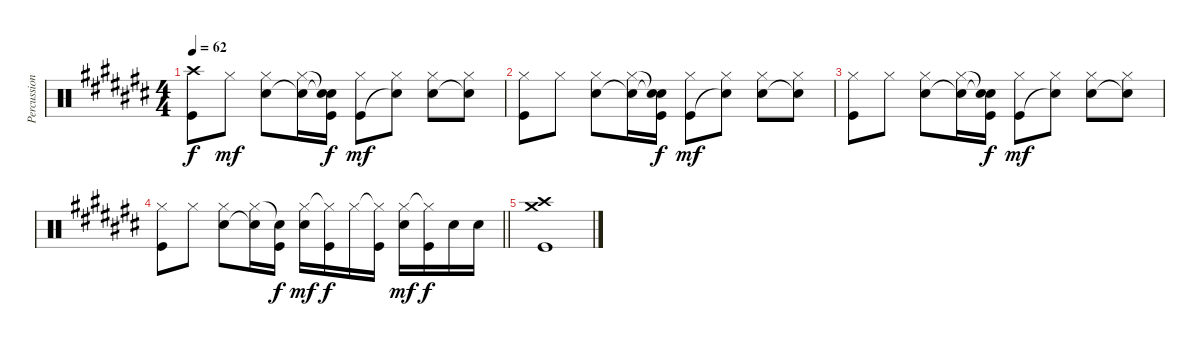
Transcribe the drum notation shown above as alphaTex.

\track ("Percussion" "Percussion") {instrument percussion}
\staff {score}
\articulation defaults
\ts (4 4)
\tempo 62
\clef neutral
\ks c#
("Crash high (hit)" "Kick (hit)").8{dy f volume 5} "Hi-Hat (closed)".8{dy mf} ("Hi-Hat (closed)" "Snare (hit) 2").8 ("Hi-Hat (closed)" "Snare (hit)"{t}).16 ("Snare (hit)"{t} "Snare (hit)"{t} "Kick (hit)").16{dy f} ("Hi-Hat (closed)" "Kick (hit)").8{dy mf volume 4} ("Hi-Hat (closed)" "Snare (hit)"{t}).8 ("Hi-Hat (closed)" "Snare (hit) 2").8 ("Hi-Hat (closed)" "Snare (hit)"{t}).8 |
("Hi-Hat (closed)" "Kick (hit)").8{volume 3} "Hi-Hat (closed)".8 ("Hi-Hat (closed)" "Snare (hit) 2").8 ("Hi-Hat (closed)" "Snare (hit)"{t}).16 ("Snare (hit)"{t} "Snare (hit)"{t} "Kick (hit)").16{dy f} ("Hi-Hat (closed)" "Kick (hit)").8{dy mf volume 2} ("Hi-Hat (closed)" "Snare (hit)"{t}).8 ("Hi-Hat (closed)" "Snare (hit) 2").8 ("Hi-Hat (closed)" "Snare (hit)"{t}).8 |
("Hi-Hat (closed)" "Kick (hit)").8{volume 1} "Hi-Hat (closed)".8 ("Hi-Hat (closed)" "Snare (hit) 2").8 ("Hi-Hat (closed)" "Snare (hit)"{t}).16 ("Snare (hit)"{t} "Snare (hit)"{t} "Kick (hit)").16{dy f} ("Hi-Hat (closed)" "Kick (hit)").8{dy mf volume 0} ("Hi-Hat (closed)" "Snare (hit)"{t}).8 ("Hi-Hat (closed)" "Snare (hit) 2").8 ("Hi-Hat (closed)" "Snare (hit)"{t}).8 |
\barLineRight lightlight
("Hi-Hat (closed)" "Kick (hit)").8 "Hi-Hat (closed)".8 ("Hi-Hat (closed)" "Snare (hit) 2").8 ("Hi-Hat (closed)" "Snare (hit)"{t}).16 ("Snare (hit)"{t} "Kick (hit)").16{dy f} ("Hi-Hat (closed)" "Snare (hit) 2").16{dy mf} ("Hi-Hat (closed)"{t} "Kick (hit)").16{dy f} "Hi-Hat (closed)".16 ("Hi-Hat (closed)"{t} "Kick (hit)").16 ("Hi-Hat (closed)" "Snare (hit) 2").16{dy mf} ("Hi-Hat (closed)"{t} "Kick (hit)").16{dy f} "Snare (hit) 2".16 "Snare (hit) 2".16 |
("Crash medium (hit)" "Crash high (hit)" "Kick (hit)").1
